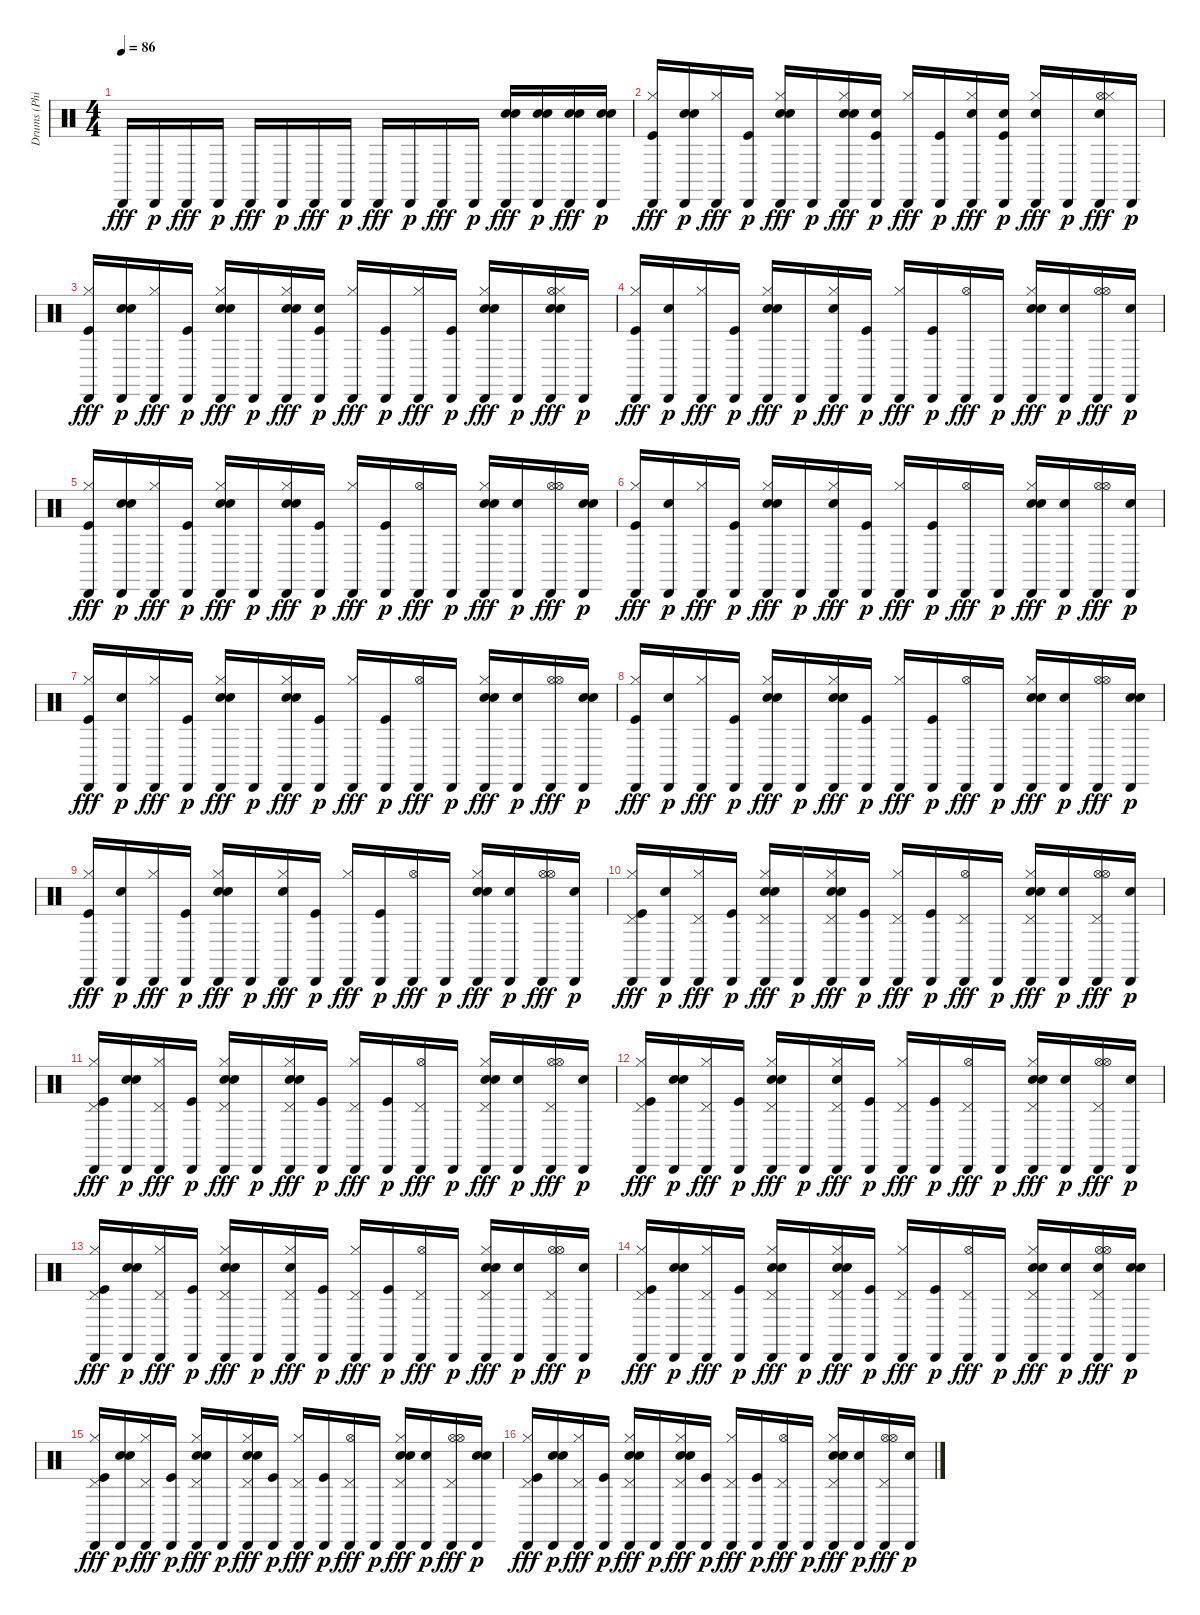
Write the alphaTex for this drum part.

\track ("Drums (Phil)" "Drums (Phi") {instrument percussion}
\staff {score}
\articulation defaults
\ts (4 4)
\tempo 86
\clef neutral
\ks c "Cabasa (hit)".16{dy fff} "Cabasa (hit)".16{dy p} "Cabasa (hit)".16{dy fff} "Cabasa (hit)".16{dy p} "Cabasa (hit)".16{dy fff} "Cabasa (hit)".16{dy p} "Cabasa (hit)".16{dy fff} "Cabasa (hit)".16{dy p} "Cabasa (hit)".16{dy fff} "Cabasa (hit)".16{dy p} "Cabasa (hit)".16{dy fff} "Cabasa (hit)".16{dy p}
("Cabasa (hit)" "Hand Clap (hit)" "Snare (hit) 2").16{dy fff} ("Cabasa (hit)" "Hand Clap (hit)" "Snare (hit) 2").16{dy p} ("Cabasa (hit)" "Hand Clap (hit)" "Snare (hit) 2").16{dy fff} ("Cabasa (hit)" "Hand Clap (hit)" "Snare (hit) 2").16{dy p} |
("Cabasa (hit)" "Hi-Hat (closed)" "Kick (hit)").16{dy fff} ("Cabasa (hit)" "Hand Clap (hit)" "Snare (hit) 2").16{dy p} ("Cabasa (hit)" "Hi-Hat (closed)").16{dy fff} ("Cabasa (hit)" "Kick (hit)").16{dy p} ("Cabasa (hit)" "Hi-Hat (closed)" "Hand Clap (hit)" "Snare (hit) 2").16{dy fff} "Cabasa (hit)".16{dy p} ("Cabasa (hit)" "Hi-Hat (closed)" "Hand Clap (hit)" "Snare (hit) 2").16{dy fff} ("Cabasa (hit)" "Hand Clap (hit)" "Kick (hit)").16{dy p} ("Cabasa (hit)" "Hi-Hat (closed)").16{dy fff} ("Cabasa (hit)" "Kick (hit)").16{dy p} ("Cabasa (hit)" "Hi-Hat (closed)" "Hand Clap (hit)").16{dy fff} ("Cabasa (hit)" "Hand Clap (hit)" "Kick (hit)").16{dy p} ("Cabasa (hit)" "Hi-Hat (closed)" "Snare (hit) 2").16{dy fff} "Cabasa (hit)".16{dy p} ("Cabasa (hit)" "Hi-Hat (open)" "Hi-Hat (closed)" "Snare (hit) 2").16{dy fff} "Cabasa (hit)".16{dy p} |
("Cabasa (hit)" "Hi-Hat (closed)" "Kick (hit)").16{dy fff} ("Cabasa (hit)" "Hand Clap (hit)" "Snare (hit) 2").16{dy p} ("Cabasa (hit)" "Hi-Hat (closed)").16{dy fff} ("Cabasa (hit)" "Kick (hit)").16{dy p} ("Cabasa (hit)" "Hi-Hat (closed)" "Hand Clap (hit)" "Snare (hit) 2").16{dy fff} "Cabasa (hit)".16{dy p} ("Cabasa (hit)" "Hi-Hat (closed)" "Hand Clap (hit)" "Snare (hit) 2").16{dy fff} ("Cabasa (hit)" "Hand Clap (hit)" "Kick (hit)").16{dy p} ("Cabasa (hit)" "Hi-Hat (closed)").16{dy fff} ("Cabasa (hit)" "Kick (hit)").16{dy p} ("Cabasa (hit)" "Hi-Hat (closed)").16{dy fff} ("Cabasa (hit)" "Kick (hit)").16{dy p} ("Cabasa (hit)" "Hi-Hat (closed)" "Hand Clap (hit)" "Snare (hit) 2").16{dy fff} "Cabasa (hit)".16{dy p} ("Cabasa (hit)" "Hi-Hat (open)" "Hi-Hat (closed)" "Hand Clap (hit)" "Snare (hit) 2").16{dy fff} "Cabasa (hit)".16{dy p} |
("Cabasa (hit)" "Hi-Hat (closed)" "Kick (hit)").16{dy fff} ("Cabasa (hit)" "Snare (hit) 2").16{dy p} ("Cabasa (hit)" "Hi-Hat (closed)").16{dy fff} ("Cabasa (hit)" "Kick (hit)").16{dy p} ("Cabasa (hit)" "Hi-Hat (closed)" "Hand Clap (hit)" "Snare (hit) 2").16{dy fff} "Cabasa (hit)".16{dy p} ("Cabasa (hit)" "Hi-Hat (closed)" "Snare (hit) 2").16{dy fff} ("Cabasa (hit)" "Kick (hit)").16{dy p} ("Cabasa (hit)" "Hi-Hat (closed)").16{dy fff} ("Cabasa (hit)" "Kick (hit)").16{dy p} ("Cabasa (hit)" "Hi-Hat (open)").16{dy fff} "Cabasa (hit)".16{dy p} ("Cabasa (hit)" "Hi-Hat (closed)" "Hand Clap (hit)" "Snare (hit) 2").16{dy fff} ("Cabasa (hit)" "Snare (hit) 2").16{dy p} ("Cabasa (hit)" "Hi-Hat (open)" "Hi-Hat (open)").16{dy fff} ("Cabasa (hit)" "Snare (hit) 2").16{dy p} |
("Cabasa (hit)" "Hi-Hat (closed)" "Kick (hit)").16{dy fff} ("Cabasa (hit)" "Hand Clap (hit)" "Snare (hit) 2").16{dy p} ("Cabasa (hit)" "Hi-Hat (closed)").16{dy fff} ("Cabasa (hit)" "Kick (hit)").16{dy p} ("Cabasa (hit)" "Hi-Hat (closed)" "Hand Clap (hit)" "Snare (hit) 2").16{dy fff} "Cabasa (hit)".16{dy p} ("Cabasa (hit)" "Hi-Hat (closed)" "Hand Clap (hit)" "Snare (hit) 2").16{dy fff} ("Cabasa (hit)" "Kick (hit)").16{dy p} ("Cabasa (hit)" "Hi-Hat (closed)").16{dy fff} ("Cabasa (hit)" "Kick (hit)").16{dy p} ("Cabasa (hit)" "Hi-Hat (open)").16{dy fff} "Cabasa (hit)".16{dy p} ("Cabasa (hit)" "Hi-Hat (closed)" "Hand Clap (hit)" "Snare (hit) 2").16{dy fff} ("Cabasa (hit)" "Snare (hit) 2").16{dy p} ("Cabasa (hit)" "Hi-Hat (open)" "Hi-Hat (open)").16{dy fff} ("Cabasa (hit)" "Hand Clap (hit)" "Snare (hit) 2").16{dy p} |
("Cabasa (hit)" "Hi-Hat (closed)" "Kick (hit)").16{dy fff} ("Cabasa (hit)" "Snare (hit) 2").16{dy p} ("Cabasa (hit)" "Hi-Hat (closed)").16{dy fff} ("Cabasa (hit)" "Kick (hit)").16{dy p} ("Cabasa (hit)" "Hi-Hat (closed)" "Hand Clap (hit)" "Snare (hit) 2").16{dy fff} "Cabasa (hit)".16{dy p} ("Cabasa (hit)" "Hi-Hat (closed)" "Snare (hit) 2").16{dy fff} ("Cabasa (hit)" "Kick (hit)").16{dy p} ("Cabasa (hit)" "Hi-Hat (closed)").16{dy fff} ("Cabasa (hit)" "Kick (hit)").16{dy p} ("Cabasa (hit)" "Hi-Hat (open)").16{dy fff} "Cabasa (hit)".16{dy p} ("Cabasa (hit)" "Hi-Hat (closed)" "Hand Clap (hit)" "Snare (hit) 2").16{dy fff} ("Cabasa (hit)" "Snare (hit) 2").16{dy p} ("Cabasa (hit)" "Hi-Hat (open)" "Hi-Hat (open)").16{dy fff} ("Cabasa (hit)" "Snare (hit) 2").16{dy p} |
("Cabasa (hit)" "Hi-Hat (closed)" "Kick (hit)").16{dy fff} ("Cabasa (hit)" "Snare (hit) 2").16{dy p} ("Cabasa (hit)" "Hi-Hat (closed)").16{dy fff} ("Cabasa (hit)" "Kick (hit)").16{dy p} ("Cabasa (hit)" "Hi-Hat (closed)" "Hand Clap (hit)" "Snare (hit) 2").16{dy fff} "Cabasa (hit)".16{dy p} ("Cabasa (hit)" "Hi-Hat (closed)" "Hand Clap (hit)" "Snare (hit) 2").16{dy fff} ("Cabasa (hit)" "Kick (hit)").16{dy p} ("Cabasa (hit)" "Hi-Hat (closed)").16{dy fff} ("Cabasa (hit)" "Kick (hit)").16{dy p} ("Cabasa (hit)" "Hi-Hat (open)").16{dy fff} "Cabasa (hit)".16{dy p} ("Cabasa (hit)" "Hi-Hat (closed)" "Hand Clap (hit)" "Snare (hit) 2").16{dy fff} ("Cabasa (hit)" "Snare (hit) 2").16{dy p} ("Cabasa (hit)" "Hi-Hat (open)" "Hi-Hat (open)").16{dy fff} ("Cabasa (hit)" "Hand Clap (hit)" "Snare (hit) 2").16{dy p} |
("Cabasa (hit)" "Hi-Hat (closed)" "Kick (hit)").16{dy fff} ("Cabasa (hit)" "Snare (hit) 2").16{dy p} ("Cabasa (hit)" "Hi-Hat (closed)").16{dy fff} ("Cabasa (hit)" "Kick (hit)").16{dy p} ("Cabasa (hit)" "Hi-Hat (closed)" "Hand Clap (hit)" "Snare (hit) 2").16{dy fff} "Cabasa (hit)".16{dy p} ("Cabasa (hit)" "Hi-Hat (closed)" "Hand Clap (hit)" "Snare (hit) 2").16{dy fff} ("Cabasa (hit)" "Kick (hit)").16{dy p} ("Cabasa (hit)" "Hi-Hat (closed)").16{dy fff} ("Cabasa (hit)" "Kick (hit)").16{dy p} ("Cabasa (hit)" "Hi-Hat (open)").16{dy fff} "Cabasa (hit)".16{dy p} ("Cabasa (hit)" "Hi-Hat (closed)" "Hand Clap (hit)" "Snare (hit) 2").16{dy fff} ("Cabasa (hit)" "Snare (hit) 2").16{dy p} ("Cabasa (hit)" "Hi-Hat (open)" "Hi-Hat (open)").16{dy fff} ("Cabasa (hit)" "Hand Clap (hit)" "Snare (hit) 2").16{dy p} |
("Cabasa (hit)" "Hi-Hat (closed)" "Kick (hit)").16{dy fff} ("Cabasa (hit)" "Snare (hit) 2").16{dy p} ("Cabasa (hit)" "Hi-Hat (closed)").16{dy fff} ("Cabasa (hit)" "Kick (hit)").16{dy p} ("Cabasa (hit)" "Hi-Hat (closed)" "Hand Clap (hit)" "Snare (hit) 2").16{dy fff} "Cabasa (hit)".16{dy p} ("Cabasa (hit)" "Hi-Hat (closed)" "Snare (hit) 2").16{dy fff} ("Cabasa (hit)" "Kick (hit)").16{dy p} ("Cabasa (hit)" "Hi-Hat (closed)").16{dy fff} ("Cabasa (hit)" "Kick (hit)").16{dy p} ("Cabasa (hit)" "Hi-Hat (open)").16{dy fff} "Cabasa (hit)".16{dy p} ("Cabasa (hit)" "Hi-Hat (closed)" "Hand Clap (hit)" "Snare (hit) 2").16{dy fff} ("Cabasa (hit)" "Snare (hit) 2").16{dy p} ("Cabasa (hit)" "Hi-Hat (open)" "Hi-Hat (open)").16{dy fff} ("Cabasa (hit)" "Snare (hit) 2").16{dy p} |
("Cabasa (hit)" "Hi-Hat (closed)" "Pedal Hi-Hat (hit)" "Kick (hit)").16{dy fff} ("Cabasa (hit)" "Snare (hit) 2").16{dy p} ("Cabasa (hit)" "Hi-Hat (closed)" "Pedal Hi-Hat (hit)").16{dy fff} ("Cabasa (hit)" "Kick (hit)").16{dy p} ("Cabasa (hit)" "Hi-Hat (closed)" "Pedal Hi-Hat (hit)" "Snare (hit) 2" "Hand Clap (hit)").16{dy fff} "Cabasa (hit)".16{dy p} ("Cabasa (hit)" "Hi-Hat (closed)" "Pedal Hi-Hat (hit)" "Snare (hit) 2" "Hand Clap (hit)").16{dy fff} ("Cabasa (hit)" "Kick (hit)").16{dy p} ("Cabasa (hit)" "Hi-Hat (closed)" "Pedal Hi-Hat (hit)").16{dy fff} ("Cabasa (hit)" "Kick (hit)").16{dy p} ("Cabasa (hit)" "Hi-Hat (open)" "Pedal Hi-Hat (hit)").16{dy fff} "Cabasa (hit)".16{dy p} ("Cabasa (hit)" "Hi-Hat (closed)" "Pedal Hi-Hat (hit)" "Snare (hit) 2" "Hand Clap (hit)").16{dy fff} ("Cabasa (hit)" "Snare (hit) 2").16{dy p} ("Cabasa (hit)" "Hi-Hat (open)" "Hi-Hat (open)" "Pedal Hi-Hat (hit)").16{dy fff} ("Cabasa (hit)" "Snare (hit) 2").16{dy p} |
("Cabasa (hit)" "Hi-Hat (closed)" "Pedal Hi-Hat (hit)" "Kick (hit)").16{dy fff} ("Cabasa (hit)" "Snare (hit) 2" "Hand Clap (hit)").16{dy p} ("Cabasa (hit)" "Hi-Hat (closed)" "Pedal Hi-Hat (hit)").16{dy fff} ("Cabasa (hit)" "Kick (hit)").16{dy p} ("Cabasa (hit)" "Hi-Hat (closed)" "Pedal Hi-Hat (hit)" "Snare (hit) 2" "Hand Clap (hit)").16{dy fff} "Cabasa (hit)".16{dy p} ("Cabasa (hit)" "Hi-Hat (closed)" "Pedal Hi-Hat (hit)" "Snare (hit) 2" "Hand Clap (hit)").16{dy fff} ("Cabasa (hit)" "Kick (hit)").16{dy p} ("Cabasa (hit)" "Hi-Hat (closed)" "Pedal Hi-Hat (hit)").16{dy fff} ("Cabasa (hit)" "Kick (hit)").16{dy p} ("Cabasa (hit)" "Hi-Hat (open)" "Pedal Hi-Hat (hit)").16{dy fff} "Cabasa (hit)".16{dy p} ("Cabasa (hit)" "Hi-Hat (closed)" "Pedal Hi-Hat (hit)" "Snare (hit) 2" "Hand Clap (hit)").16{dy fff} ("Cabasa (hit)" "Snare (hit) 2").16{dy p} ("Cabasa (hit)" "Hi-Hat (open)" "Hi-Hat (open)" "Pedal Hi-Hat (hit)").16{dy fff} ("Cabasa (hit)" "Snare (hit) 2").16{dy p} |
("Cabasa (hit)" "Hi-Hat (closed)" "Pedal Hi-Hat (hit)" "Kick (hit)").16{dy fff} ("Cabasa (hit)" "Snare (hit) 2" "Hand Clap (hit)").16{dy p} ("Cabasa (hit)" "Hi-Hat (closed)" "Pedal Hi-Hat (hit)").16{dy fff} ("Cabasa (hit)" "Kick (hit)").16{dy p} ("Cabasa (hit)" "Hi-Hat (closed)" "Pedal Hi-Hat (hit)" "Snare (hit) 2" "Hand Clap (hit)").16{dy fff} "Cabasa (hit)".16{dy p} ("Cabasa (hit)" "Hi-Hat (closed)" "Pedal Hi-Hat (hit)" "Snare (hit) 2").16{dy fff} ("Cabasa (hit)" "Kick (hit)").16{dy p} ("Cabasa (hit)" "Hi-Hat (closed)" "Pedal Hi-Hat (hit)").16{dy fff} ("Cabasa (hit)" "Kick (hit)").16{dy p} ("Cabasa (hit)" "Hi-Hat (open)" "Pedal Hi-Hat (hit)").16{dy fff} "Cabasa (hit)".16{dy p} ("Cabasa (hit)" "Hi-Hat (closed)" "Pedal Hi-Hat (hit)" "Snare (hit) 2" "Hand Clap (hit)").16{dy fff} ("Cabasa (hit)" "Snare (hit) 2").16{dy p} ("Cabasa (hit)" "Hi-Hat (open)" "Hi-Hat (open)" "Pedal Hi-Hat (hit)").16{dy fff} ("Cabasa (hit)" "Snare (hit) 2").16{dy p} |
("Cabasa (hit)" "Hi-Hat (closed)" "Pedal Hi-Hat (hit)" "Kick (hit)").16{dy fff} ("Cabasa (hit)" "Snare (hit) 2" "Hand Clap (hit)").16{dy p} ("Cabasa (hit)" "Hi-Hat (closed)" "Pedal Hi-Hat (hit)").16{dy fff} ("Cabasa (hit)" "Kick (hit)").16{dy p} ("Cabasa (hit)" "Hi-Hat (closed)" "Pedal Hi-Hat (hit)" "Snare (hit) 2" "Hand Clap (hit)").16{dy fff} "Cabasa (hit)".16{dy p} ("Cabasa (hit)" "Hi-Hat (closed)" "Pedal Hi-Hat (hit)" "Snare (hit) 2").16{dy fff} ("Cabasa (hit)" "Kick (hit)").16{dy p} ("Cabasa (hit)" "Hi-Hat (closed)" "Pedal Hi-Hat (hit)").16{dy fff} ("Cabasa (hit)" "Kick (hit)").16{dy p} ("Cabasa (hit)" "Hi-Hat (open)" "Pedal Hi-Hat (hit)").16{dy fff} "Cabasa (hit)".16{dy p} ("Cabasa (hit)" "Hi-Hat (closed)" "Pedal Hi-Hat (hit)" "Snare (hit) 2" "Hand Clap (hit)").16{dy fff} ("Cabasa (hit)" "Snare (hit) 2").16{dy p} ("Cabasa (hit)" "Hi-Hat (open)" "Hi-Hat (open)" "Pedal Hi-Hat (hit)").16{dy fff} ("Cabasa (hit)" "Snare (hit) 2").16{dy p} |
("Cabasa (hit)" "Hi-Hat (closed)" "Pedal Hi-Hat (hit)" "Kick (hit)").16{dy fff} ("Cabasa (hit)" "Snare (hit) 2" "Hand Clap (hit)").16{dy p} ("Cabasa (hit)" "Hi-Hat (closed)" "Pedal Hi-Hat (hit)").16{dy fff} ("Cabasa (hit)" "Kick (hit)").16{dy p} ("Cabasa (hit)" "Hi-Hat (closed)" "Pedal Hi-Hat (hit)" "Snare (hit) 2" "Hand Clap (hit)").16{dy fff} "Cabasa (hit)".16{dy p} ("Cabasa (hit)" "Hi-Hat (closed)" "Pedal Hi-Hat (hit)" "Snare (hit) 2" "Hand Clap (hit)").16{dy fff} ("Cabasa (hit)" "Kick (hit)").16{dy p} ("Cabasa (hit)" "Hi-Hat (closed)" "Pedal Hi-Hat (hit)").16{dy fff} ("Cabasa (hit)" "Kick (hit)").16{dy p} ("Cabasa (hit)" "Hi-Hat (open)" "Pedal Hi-Hat (hit)").16{dy fff} "Cabasa (hit)".16{dy p} ("Cabasa (hit)" "Hi-Hat (closed)" "Pedal Hi-Hat (hit)" "Snare (hit) 2" "Hand Clap (hit)").16{dy fff} ("Cabasa (hit)" "Snare (hit) 2").16{dy p} ("Cabasa (hit)" "Hi-Hat (open)" "Hi-Hat (open)" "Pedal Hi-Hat (hit)" "Hand Clap (hit)").16{dy fff} ("Cabasa (hit)" "Snare (hit) 2" "Hand Clap (hit)").16{dy p} |
("Cabasa (hit)" "Hi-Hat (closed)" "Pedal Hi-Hat (hit)" "Kick (hit)").16{dy fff} ("Cabasa (hit)" "Snare (hit) 2" "Hand Clap (hit)").16{dy p} ("Cabasa (hit)" "Hi-Hat (closed)" "Pedal Hi-Hat (hit)").16{dy fff} ("Cabasa (hit)" "Kick (hit)").16{dy p} ("Cabasa (hit)" "Hi-Hat (closed)" "Pedal Hi-Hat (hit)" "Snare (hit) 2" "Hand Clap (hit)").16{dy fff} "Cabasa (hit)".16{dy p} ("Cabasa (hit)" "Hi-Hat (closed)" "Pedal Hi-Hat (hit)" "Snare (hit) 2" "Hand Clap (hit)").16{dy fff} ("Cabasa (hit)" "Kick (hit)").16{dy p} ("Cabasa (hit)" "Hi-Hat (closed)" "Pedal Hi-Hat (hit)").16{dy fff} ("Cabasa (hit)" "Kick (hit)").16{dy p} ("Cabasa (hit)" "Hi-Hat (open)" "Pedal Hi-Hat (hit)").16{dy fff} "Cabasa (hit)".16{dy p} ("Cabasa (hit)" "Hi-Hat (closed)" "Pedal Hi-Hat (hit)" "Snare (hit) 2" "Hand Clap (hit)").16{dy fff} ("Cabasa (hit)" "Snare (hit) 2").16{dy p} ("Cabasa (hit)" "Hi-Hat (open)" "Hi-Hat (open)" "Pedal Hi-Hat (hit)").16{dy fff} ("Cabasa (hit)" "Snare (hit) 2" "Hand Clap (hit)").16{dy p} |
("Cabasa (hit)" "Hi-Hat (closed)" "Pedal Hi-Hat (hit)" "Kick (hit)").16{dy fff} ("Cabasa (hit)" "Snare (hit) 2" "Hand Clap (hit)").16{dy p} ("Cabasa (hit)" "Hi-Hat (closed)" "Pedal Hi-Hat (hit)").16{dy fff} ("Cabasa (hit)" "Kick (hit)").16{dy p} ("Cabasa (hit)" "Hi-Hat (closed)" "Pedal Hi-Hat (hit)" "Snare (hit) 2" "Hand Clap (hit)").16{dy fff} "Cabasa (hit)".16{dy p} ("Cabasa (hit)" "Hi-Hat (closed)" "Pedal Hi-Hat (hit)" "Snare (hit) 2" "Hand Clap (hit)").16{dy fff} ("Cabasa (hit)" "Kick (hit)").16{dy p} ("Cabasa (hit)" "Hi-Hat (closed)" "Pedal Hi-Hat (hit)").16{dy fff} ("Cabasa (hit)" "Kick (hit)").16{dy p} ("Cabasa (hit)" "Hi-Hat (open)" "Pedal Hi-Hat (hit)").16{dy fff} "Cabasa (hit)".16{dy p} ("Cabasa (hit)" "Hi-Hat (closed)" "Pedal Hi-Hat (hit)" "Snare (hit) 2" "Hand Clap (hit)").16{dy fff} ("Cabasa (hit)" "Snare (hit) 2").16{dy p} ("Cabasa (hit)" "Hi-Hat (open)" "Hi-Hat (open)" "Pedal Hi-Hat (hit)").16{dy fff} ("Cabasa (hit)" "Snare (hit) 2").16{dy p}
